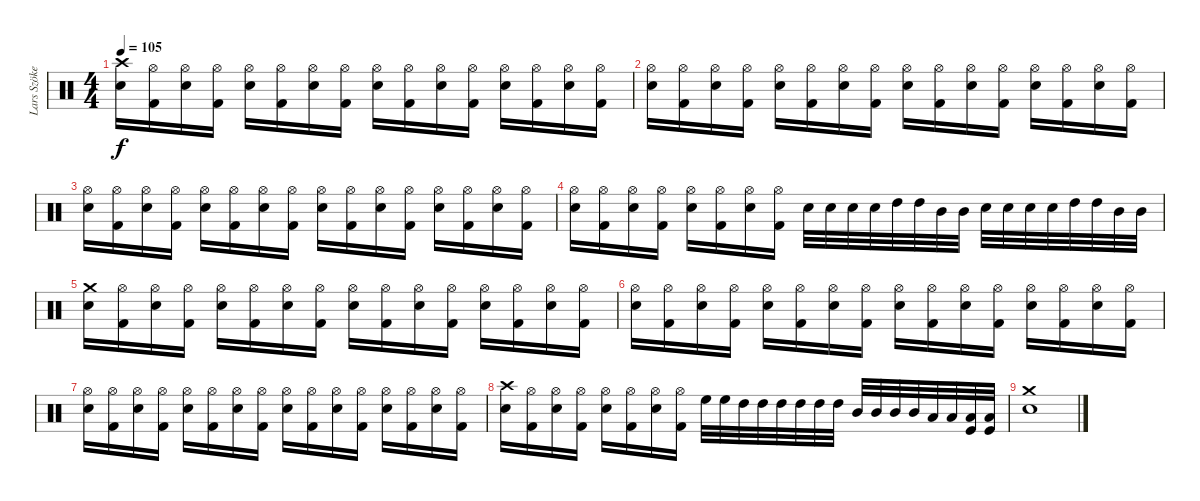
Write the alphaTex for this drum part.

\track ("Lars Szöke" "Lars Szöke") {instrument percussion}
\staff {score}
\articulation defaults
\ts (4 4)
\tempo 105
\clef neutral
\ks c
("Crash high (hit)" "Snare (hit) 2").16{dy f} ("Hi-Hat (open)" "Kick (hit) 2").16 ("Hi-Hat (open)" "Snare (hit) 2").16 ("Hi-Hat (open)" "Kick (hit) 2").16 ("Hi-Hat (open)" "Snare (hit) 2").16 ("Hi-Hat (open)" "Kick (hit) 2").16 ("Hi-Hat (open)" "Snare (hit) 2").16 ("Hi-Hat (open)" "Kick (hit) 2").16 ("Hi-Hat (open)" "Snare (hit) 2").16 ("Hi-Hat (open)" "Kick (hit) 2").16 ("Hi-Hat (open)" "Snare (hit) 2").16 ("Hi-Hat (open)" "Kick (hit) 2").16 ("Hi-Hat (open)" "Snare (hit) 2").16 ("Hi-Hat (open)" "Kick (hit) 2").16 ("Hi-Hat (open)" "Snare (hit) 2").16 ("Hi-Hat (open)" "Kick (hit) 2").16 |
("Hi-Hat (open)" "Snare (hit) 2").16 ("Hi-Hat (open)" "Kick (hit) 2").16 ("Hi-Hat (open)" "Snare (hit) 2").16 ("Hi-Hat (open)" "Kick (hit) 2").16 ("Hi-Hat (open)" "Snare (hit) 2").16 ("Hi-Hat (open)" "Kick (hit) 2").16 ("Hi-Hat (open)" "Snare (hit) 2").16 ("Hi-Hat (open)" "Kick (hit) 2").16 ("Hi-Hat (open)" "Snare (hit) 2").16 ("Hi-Hat (open)" "Kick (hit) 2").16 ("Hi-Hat (open)" "Snare (hit) 2").16 ("Hi-Hat (open)" "Kick (hit) 2").16 ("Hi-Hat (open)" "Snare (hit) 2").16 ("Hi-Hat (open)" "Kick (hit) 2").16 ("Hi-Hat (open)" "Snare (hit) 2").16 ("Hi-Hat (open)" "Kick (hit) 2").16 |
("Hi-Hat (open)" "Snare (hit) 2").16 ("Hi-Hat (open)" "Kick (hit) 2").16 ("Hi-Hat (open)" "Snare (hit) 2").16 ("Hi-Hat (open)" "Kick (hit) 2").16 ("Hi-Hat (open)" "Snare (hit) 2").16 ("Hi-Hat (open)" "Kick (hit) 2").16 ("Hi-Hat (open)" "Snare (hit) 2").16 ("Hi-Hat (open)" "Kick (hit) 2").16 ("Hi-Hat (open)" "Snare (hit) 2").16 ("Hi-Hat (open)" "Kick (hit) 2").16 ("Hi-Hat (open)" "Snare (hit) 2").16 ("Hi-Hat (open)" "Kick (hit) 2").16 ("Hi-Hat (open)" "Snare (hit) 2").16 ("Hi-Hat (open)" "Kick (hit) 2").16 ("Hi-Hat (open)" "Snare (hit) 2").16 ("Hi-Hat (open)" "Kick (hit) 2").16 |
("Hi-Hat (open)" "Snare (hit) 2").16 ("Hi-Hat (open)" "Kick (hit) 2").16 ("Hi-Hat (open)" "Snare (hit) 2").16 ("Hi-Hat (open)" "Kick (hit) 2").16 ("Hi-Hat (open)" "Snare (hit) 2").16 ("Hi-Hat (open)" "Kick (hit) 2").16 ("Hi-Hat (open)" "Snare (hit) 2").16 ("Hi-Hat (open)" "Kick (hit) 2").16 "Snare (hit) 2".32 "Snare (hit) 2".32 "Snare (hit) 2".32 "Snare (hit) 2".32 "High Tom (hit)".32 "High Tom (hit)".32 "Mid Tom (hit)".32 "Mid Tom (hit)".32 "Snare (hit) 2".32 "Snare (hit) 2".32 "Snare (hit) 2".32 "Snare (hit) 2".32 "High Tom (hit)".32 "High Tom (hit)".32 "Mid Tom (hit)".32 "Mid Tom (hit)".32 |
("Crash medium (hit)" "Snare (hit) 2").16 ("Hi-Hat (open)" "Kick (hit) 2").16 ("Hi-Hat (open)" "Snare (hit) 2").16 ("Hi-Hat (open)" "Kick (hit) 2").16 ("Hi-Hat (open)" "Snare (hit) 2").16 ("Hi-Hat (open)" "Kick (hit) 2").16 ("Hi-Hat (open)" "Snare (hit) 2").16 ("Hi-Hat (open)" "Kick (hit) 2").16 ("Hi-Hat (open)" "Snare (hit) 2").16 ("Hi-Hat (open)" "Kick (hit) 2").16 ("Hi-Hat (open)" "Snare (hit) 2").16 ("Hi-Hat (open)" "Kick (hit) 2").16 ("Hi-Hat (open)" "Snare (hit) 2").16 ("Hi-Hat (open)" "Kick (hit) 2").16 ("Hi-Hat (open)" "Snare (hit) 2").16 ("Hi-Hat (open)" "Kick (hit) 2").16 |
("Hi-Hat (open)" "Snare (hit) 2").16 ("Hi-Hat (open)" "Kick (hit) 2").16 ("Hi-Hat (open)" "Snare (hit) 2").16 ("Hi-Hat (open)" "Kick (hit) 2").16 ("Hi-Hat (open)" "Snare (hit) 2").16 ("Hi-Hat (open)" "Kick (hit) 2").16 ("Hi-Hat (open)" "Snare (hit) 2").16 ("Hi-Hat (open)" "Kick (hit) 2").16 ("Hi-Hat (open)" "Snare (hit) 2").16 ("Hi-Hat (open)" "Kick (hit) 2").16 ("Hi-Hat (open)" "Snare (hit) 2").16 ("Hi-Hat (open)" "Kick (hit) 2").16 ("Hi-Hat (open)" "Snare (hit) 2").16 ("Hi-Hat (open)" "Kick (hit) 2").16 ("Hi-Hat (open)" "Snare (hit) 2").16 ("Hi-Hat (open)" "Kick (hit) 2").16 |
("Hi-Hat (open)" "Snare (hit) 2").16 ("Hi-Hat (open)" "Kick (hit) 2").16 ("Hi-Hat (open)" "Snare (hit) 2").16 ("Hi-Hat (open)" "Kick (hit) 2").16 ("Hi-Hat (open)" "Snare (hit) 2").16 ("Hi-Hat (open)" "Kick (hit) 2").16 ("Hi-Hat (open)" "Snare (hit) 2").16 ("Hi-Hat (open)" "Kick (hit) 2").16 ("Hi-Hat (open)" "Snare (hit) 2").16 ("Hi-Hat (open)" "Kick (hit) 2").16 ("Hi-Hat (open)" "Snare (hit) 2").16 ("Hi-Hat (open)" "Kick (hit) 2").16 ("Hi-Hat (open)" "Snare (hit) 2").16 ("Hi-Hat (open)" "Kick (hit) 2").16 ("Hi-Hat (open)" "Snare (hit) 2").16 ("Hi-Hat (open)" "Kick (hit) 2").16 |
("Crash high (hit)" "Snare (hit) 2").16 ("Hi-Hat (open)" "Kick (hit) 2").16 ("Hi-Hat (open)" "Snare (hit) 2").16 ("Hi-Hat (open)" "Kick (hit) 2").16 ("Hi-Hat (open)" "Snare (hit) 2").16 ("Hi-Hat (open)" "Kick (hit) 2").16 ("Hi-Hat (open)" "Snare (hit) 2").16 ("Hi-Hat (open)" "Kick (hit) 2").16 "High Floor Tom (hit)".32 "High Floor Tom (hit)".32 "High Tom (hit)".32 "High Tom (hit)".32 "High Tom (hit)".32 "High Tom (hit)".32 "High Tom (hit)".32 "High Tom (hit)".32 "Mid Tom (hit)".32 "Mid Tom (hit)".32 "Mid Tom (hit)".32 "Mid Tom (hit)".32 "Low Tom (hit)".32 "Low Tom (hit)".32 ("Low Tom (hit)" "Kick (hit)").32 ("Low Tom (hit)" "Kick (hit)").32 |
("Crash medium (hit)" "Snare (hit) 2").1
